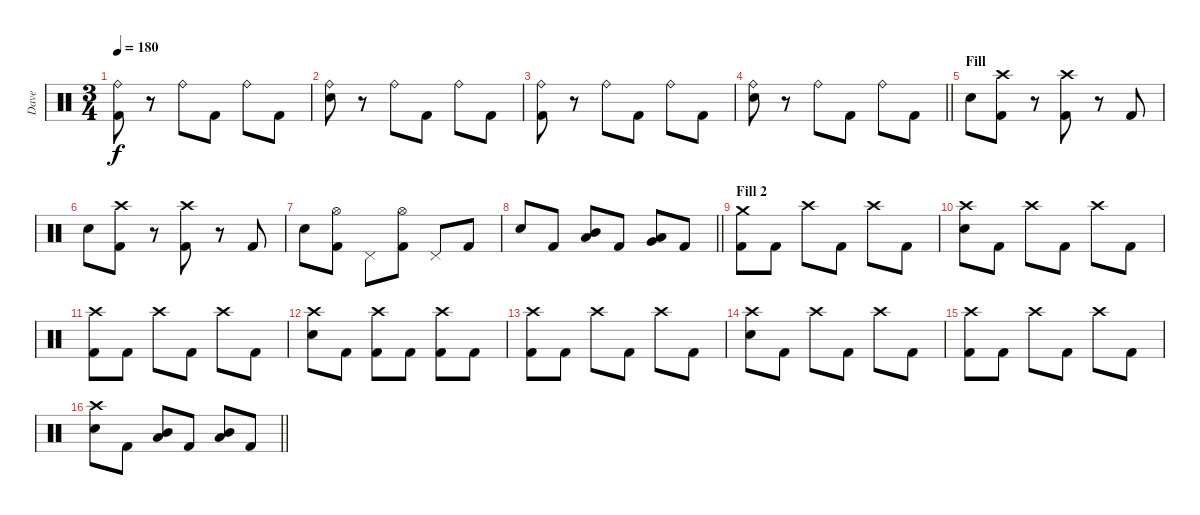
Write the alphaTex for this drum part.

\track ("Dave" "Dave") {instrument percussion}
\staff {score}
\articulation defaults
\ts (3 4)
\tempo 180
\clef neutral
\ks c
("Kick (hit) 2" "Ride (bell)").8{dy f} r.8 "Ride (bell)".8 "Kick (hit) 2".8 "Ride (bell)".8 "Kick (hit) 2".8 |
("Electric Snare (hit)" "Ride (bell)").8 r.8 "Ride (bell)".8 "Kick (hit) 2".8 "Ride (bell)".8 "Kick (hit) 2".8 |
("Kick (hit) 2" "Ride (bell)").8 r.8 "Ride (bell)".8 "Kick (hit) 2".8 "Ride (bell)".8 "Kick (hit) 2".8 |
\barLineRight lightlight
("Electric Snare (hit)" "Ride (bell)").8 r.8 "Ride (bell)".8 "Kick (hit) 2".8 "Ride (bell)".8 "Kick (hit) 2".8 |
\section ("" "Fill")
"Electric Snare (hit)".8 ("Kick (hit) 2" "Crash high (hit)").8 r.8 ("Kick (hit) 2" "Crash high (hit)").8 r.8 "Kick (hit) 2".8 |
"Electric Snare (hit)".8 ("Kick (hit) 2" "Crash high (hit)").8 r.8 ("Kick (hit) 2" "Crash high (hit)").8 r.8 "Kick (hit) 2".8 |
"Electric Snare (hit)".8 ("Kick (hit) 2" "Hi-Hat (open)").8 "Pedal Hi-Hat (hit)".8 ("Kick (hit) 2" "Hi-Hat (open)").8 "Pedal Hi-Hat (hit)".8 "Kick (hit) 2".8 |
\barLineRight lightlight "Electric Snare (hit)".8 "Kick (hit) 2".8
("Mid Tom (hit)" "Low Tom (hit)").8 "Kick (hit) 2".8 ("Low Tom (hit)" "Very Low Tom (hit)").8 "Kick (hit) 2".8 |
\section ("" "Fill 2")
("Kick (hit) 2" "Crash medium (hit)").8 "Kick (hit) 2".8 "Crash high (hit)".8 "Kick (hit) 2".8 "Crash high (hit)".8 "Kick (hit) 2".8 |
("Electric Snare (hit)" "Crash high (hit)").8 "Kick (hit) 2".8 "Crash high (hit)".8 "Kick (hit) 2".8 "Crash high (hit)".8 "Kick (hit) 2".8 |
("Kick (hit) 2" "Crash high (hit)").8 "Kick (hit) 2".8 "Crash high (hit)".8 "Kick (hit) 2".8 "Crash high (hit)".8 "Kick (hit) 2".8 |
("Electric Snare (hit)" "Crash high (hit)").8 "Kick (hit) 2".8 ("Kick (hit) 2" "Crash high (hit)").8 "Kick (hit) 2".8 ("Kick (hit) 2" "Crash high (hit)").8 "Kick (hit) 2".8 |
("Kick (hit) 2" "Crash high (hit)").8 "Kick (hit) 2".8 "Crash high (hit)".8 "Kick (hit) 2".8 "Crash high (hit)".8 "Kick (hit) 2".8 |
("Electric Snare (hit)" "Crash high (hit)").8 "Kick (hit) 2".8 "Crash high (hit)".8 "Kick (hit) 2".8 "Crash high (hit)".8 "Kick (hit) 2".8 |
("Kick (hit) 2" "Crash high (hit)").8 "Kick (hit) 2".8 "Crash high (hit)".8 "Kick (hit) 2".8 "Crash high (hit)".8 "Kick (hit) 2".8 |
\barLineRight lightlight
("Electric Snare (hit)" "Crash high (hit)").8 "Kick (hit) 2".8 ("Mid Tom (hit)" "Low Tom (hit)").8 "Kick (hit) 2".8 ("Mid Tom (hit)" "Low Tom (hit)").8 "Kick (hit) 2".8
